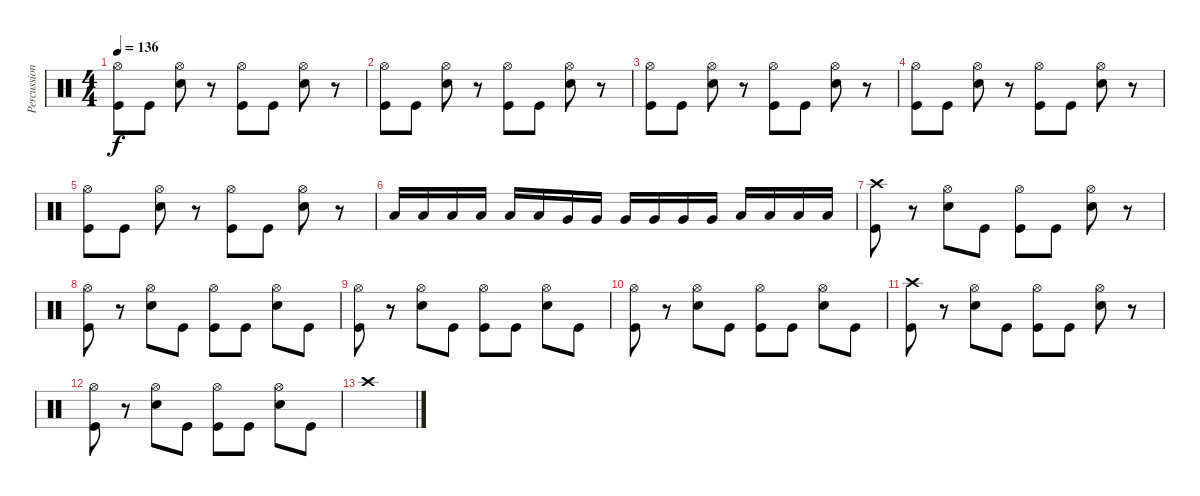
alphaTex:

\track ("Percussion" "Percussion") {instrument percussion}
\staff {score}
\articulation defaults
\ts (4 4)
\tempo 136
\clef neutral
\ks c
("Hi-Hat (open)" "Kick (hit)").8{dy f} "Kick (hit)".8 ("Hi-Hat (open)" "Snare (hit) 2").8 r.8 ("Hi-Hat (open)" "Kick (hit)").8 "Kick (hit)".8 ("Hi-Hat (open)" "Snare (hit) 2").8 r.8 |
("Hi-Hat (open)" "Kick (hit)").8 "Kick (hit)".8 ("Hi-Hat (open)" "Snare (hit) 2").8 r.8 ("Hi-Hat (open)" "Kick (hit)").8 "Kick (hit)".8 ("Hi-Hat (open)" "Snare (hit) 2").8 r.8 |
("Hi-Hat (open)" "Kick (hit)").8 "Kick (hit)".8 ("Hi-Hat (open)" "Snare (hit) 2").8 r.8 ("Hi-Hat (open)" "Kick (hit)").8 "Kick (hit)".8 ("Hi-Hat (open)" "Snare (hit) 2").8 r.8 |
("Hi-Hat (open)" "Kick (hit)").8 "Kick (hit)".8 ("Hi-Hat (open)" "Snare (hit) 2").8 r.8 ("Hi-Hat (open)" "Kick (hit)").8 "Kick (hit)".8 ("Hi-Hat (open)" "Snare (hit) 2").8 r.8 |
("Hi-Hat (open)" "Kick (hit)").8 "Kick (hit)".8 ("Hi-Hat (open)" "Snare (hit) 2").8 r.8 ("Hi-Hat (open)" "Kick (hit)").8 "Kick (hit)".8 ("Hi-Hat (open)" "Snare (hit) 2").8 r.8 |
"Low Tom (hit)".16 "Low Tom (hit)".16 "Low Tom (hit)".16 "Low Tom (hit)".16 "Low Tom (hit)".16 "Low Tom (hit)".16 "Very Low Tom (hit)".16 "Very Low Tom (hit)".16 "Very Low Tom (hit)".16 "Very Low Tom (hit)".16 "Very Low Tom (hit)".16 "Very Low Tom (hit)".16 "Low Floor Tom (hit)".16 "Low Floor Tom (hit)".16 "Low Floor Tom (hit)".16 "Low Floor Tom (hit)".16 |
("Crash high (hit)" "Kick (hit)").8 r.8 ("Hi-Hat (open)" "Snare (hit) 2").8 "Kick (hit)".8 ("Hi-Hat (open)" "Kick (hit)").8 "Kick (hit)".8 ("Hi-Hat (open)" "Snare (hit) 2").8 r.8 |
("Hi-Hat (open)" "Kick (hit)").8 r.8 ("Hi-Hat (open)" "Snare (hit) 2").8 "Kick (hit)".8 ("Hi-Hat (open)" "Kick (hit)").8 "Kick (hit)".8 ("Hi-Hat (open)" "Snare (hit) 2").8 "Kick (hit)".8 |
("Hi-Hat (open)" "Kick (hit)").8 r.8 ("Hi-Hat (open)" "Snare (hit) 2").8 "Kick (hit)".8 ("Hi-Hat (open)" "Kick (hit)").8 "Kick (hit)".8 ("Hi-Hat (open)" "Snare (hit) 2").8 "Kick (hit)".8 |
("Hi-Hat (open)" "Kick (hit)").8 r.8 ("Hi-Hat (open)" "Snare (hit) 2").8 "Kick (hit)".8 ("Hi-Hat (open)" "Kick (hit)").8 "Kick (hit)".8 ("Hi-Hat (open)" "Snare (hit) 2").8 "Kick (hit)".8 |
("Crash high (hit)" "Kick (hit)").8 r.8 ("Hi-Hat (open)" "Snare (hit) 2").8 "Kick (hit)".8 ("Hi-Hat (open)" "Kick (hit)").8 "Kick (hit)".8 ("Hi-Hat (open)" "Snare (hit) 2").8 r.8 |
("Hi-Hat (open)" "Kick (hit)").8 r.8 ("Hi-Hat (open)" "Snare (hit) 2").8 "Kick (hit)".8 ("Hi-Hat (open)" "Kick (hit)").8 "Kick (hit)".8 ("Hi-Hat (open)" "Snare (hit) 2").8 "Kick (hit)".8 |
"Crash high (hit)".1
